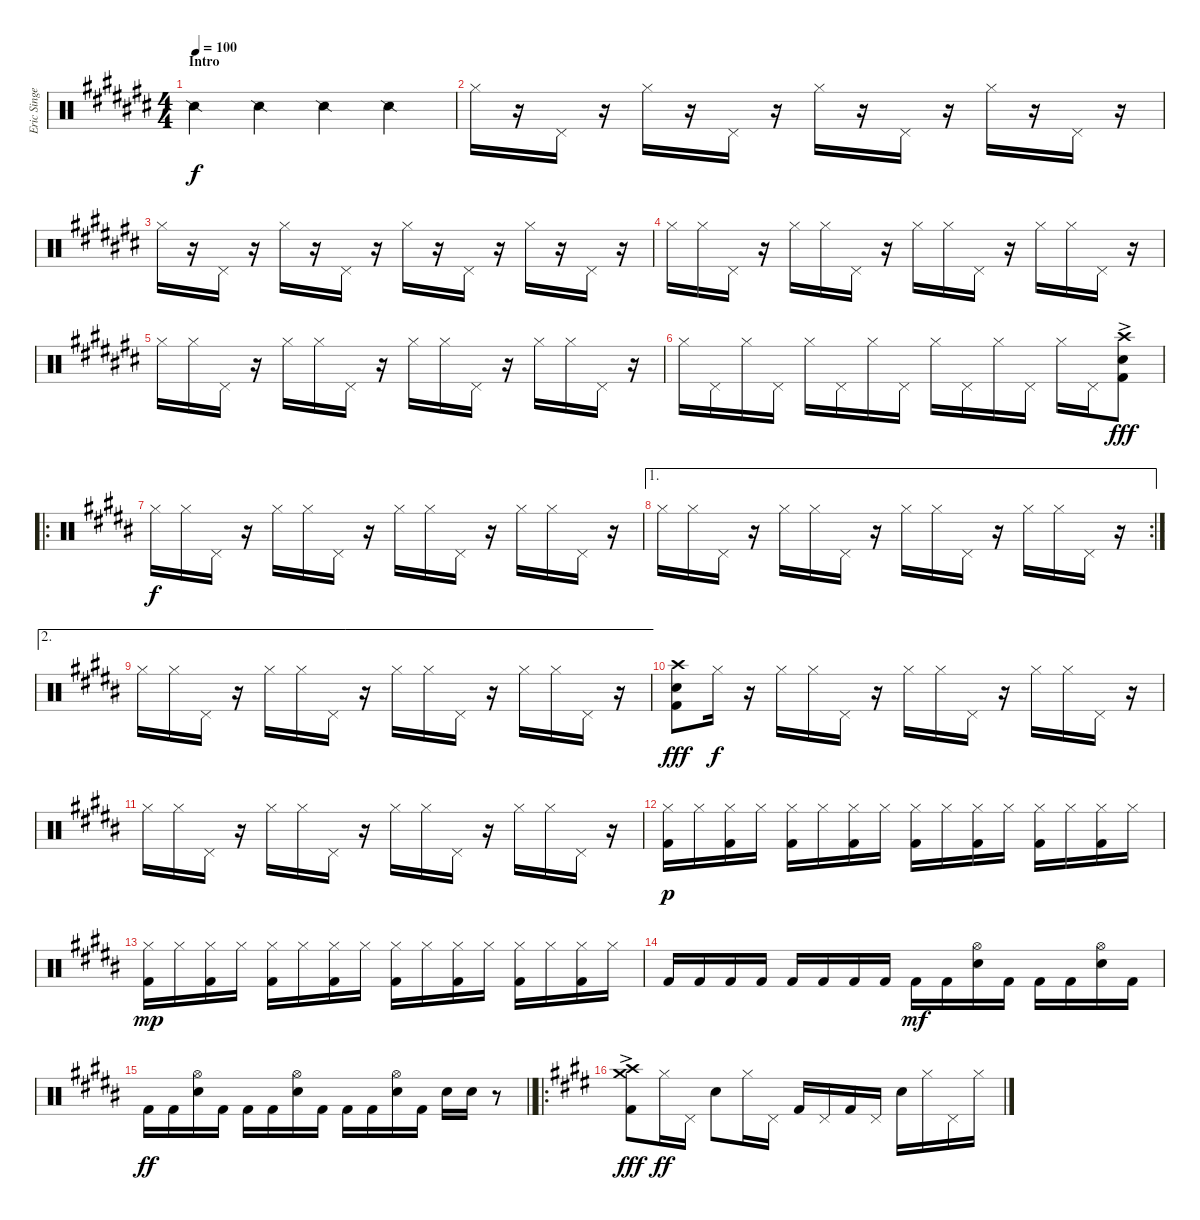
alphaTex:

\track ("Eric Singer" "Eric Singe") {instrument percussion}
\staff {score}
\articulation defaults
\ts (4 4)
\section ("" "Intro")
\tempo 100
\clef neutral
\ks c# "Snare (side stick) 2".4{dy f} "Snare (side stick) 2".4 "Snare (side stick) 2".4 "Snare (side stick) 2".4
|
\ks a#minor "Hi-Hat (closed)".16
r.16 "Pedal Hi-Hat (hit)".16 r.16 "Hi-Hat (closed)".16 r.16 "Pedal Hi-Hat (hit)".16 r.16 "Hi-Hat (closed)".16 r.16 "Pedal Hi-Hat (hit)".16 r.16 "Hi-Hat (closed)".16 r.16 "Pedal Hi-Hat (hit)".16 r.16 |
"Hi-Hat (closed)".16 r.16 "Pedal Hi-Hat (hit)".16 r.16 "Hi-Hat (closed)".16 r.16 "Pedal Hi-Hat (hit)".16 r.16 "Hi-Hat (closed)".16 r.16 "Pedal Hi-Hat (hit)".16 r.16 "Hi-Hat (closed)".16 r.16 "Pedal Hi-Hat (hit)".16 r.16 |
"Hi-Hat (closed)".16 "Hi-Hat (closed)".16 "Pedal Hi-Hat (hit)".16 r.16 "Hi-Hat (closed)".16 "Hi-Hat (closed)".16 "Pedal Hi-Hat (hit)".16 r.16 "Hi-Hat (closed)".16 "Hi-Hat (closed)".16 "Pedal Hi-Hat (hit)".16 r.16 "Hi-Hat (closed)".16 "Hi-Hat (closed)".16 "Pedal Hi-Hat (hit)".16 r.16 |
"Hi-Hat (closed)".16 "Hi-Hat (closed)".16 "Pedal Hi-Hat (hit)".16 r.16 "Hi-Hat (closed)".16 "Hi-Hat (closed)".16 "Pedal Hi-Hat (hit)".16 r.16 "Hi-Hat (closed)".16 "Hi-Hat (closed)".16 "Pedal Hi-Hat (hit)".16 r.16 "Hi-Hat (closed)".16 "Hi-Hat (closed)".16 "Pedal Hi-Hat (hit)".16 r.16 |
\ks c# "Hi-Hat (closed)".16 "Pedal Hi-Hat (hit)".16 "Hi-Hat (closed)".16 "Pedal Hi-Hat (hit)".16 "Hi-Hat (closed)".16 "Pedal Hi-Hat (hit)".16 "Hi-Hat (closed)".16 "Pedal Hi-Hat (hit)".16 "Hi-Hat (closed)".16 "Pedal Hi-Hat (hit)".16 "Hi-Hat (closed)".16 "Pedal Hi-Hat (hit)".16 "Hi-Hat (closed)".16 "Pedal Hi-Hat (hit)".16
("Crash high (hit)"{ac} "Kick (hit) 2"{ac} "Snare (hit) 2"{ac}).8{dy fff} |
\ro
\ks b "Hi-Hat (closed)".16{dy f} "Hi-Hat (closed)".16 "Pedal Hi-Hat (hit)".16
r.16 "Hi-Hat (closed)".16 "Hi-Hat (closed)".16 "Pedal Hi-Hat (hit)".16 r.16 "Hi-Hat (closed)".16 "Hi-Hat (closed)".16 "Pedal Hi-Hat (hit)".16 r.16 "Hi-Hat (closed)".16 "Hi-Hat (closed)".16 "Pedal Hi-Hat (hit)".16 r.16 |
\ae 1
\rc 2 "Hi-Hat (closed)".16 "Hi-Hat (closed)".16 "Pedal Hi-Hat (hit)".16
r.16 "Hi-Hat (closed)".16 "Hi-Hat (closed)".16 "Pedal Hi-Hat (hit)".16 r.16 "Hi-Hat (closed)".16 "Hi-Hat (closed)".16 "Pedal Hi-Hat (hit)".16 r.16 "Hi-Hat (closed)".16 "Hi-Hat (closed)".16 "Pedal Hi-Hat (hit)".16 r.16 |
\ae 2 "Hi-Hat (closed)".16 "Hi-Hat (closed)".16 "Pedal Hi-Hat (hit)".16
r.16 "Hi-Hat (closed)".16 "Hi-Hat (closed)".16 "Pedal Hi-Hat (hit)".16 r.16 "Hi-Hat (closed)".16 "Hi-Hat (closed)".16 "Pedal Hi-Hat (hit)".16 r.16 "Hi-Hat (closed)".16 "Hi-Hat (closed)".16 "Pedal Hi-Hat (hit)".16 r.16 |
("Crash high (hit)" "Kick (hit) 2" "Snare (hit) 2").8{dy fff} "Hi-Hat (closed)".16{dy f} r.16 "Hi-Hat (closed)".16 "Hi-Hat (closed)".16 "Pedal Hi-Hat (hit)".16 r.16 "Hi-Hat (closed)".16 "Hi-Hat (closed)".16 "Pedal Hi-Hat (hit)".16 r.16 "Hi-Hat (closed)".16 "Hi-Hat (closed)".16 "Pedal Hi-Hat (hit)".16 r.16 |
"Hi-Hat (closed)".16 "Hi-Hat (closed)".16 "Pedal Hi-Hat (hit)".16 r.16 "Hi-Hat (closed)".16 "Hi-Hat (closed)".16 "Pedal Hi-Hat (hit)".16 r.16 "Hi-Hat (closed)".16 "Hi-Hat (closed)".16 "Pedal Hi-Hat (hit)".16 r.16 "Hi-Hat (closed)".16 "Hi-Hat (closed)".16 "Pedal Hi-Hat (hit)".16 r.16 |
("Hi-Hat (closed)" "Kick (hit) 2").16{dy p} "Hi-Hat (closed)".16 ("Hi-Hat (closed)" "Kick (hit) 2").16 "Hi-Hat (closed)".16 ("Hi-Hat (closed)" "Kick (hit) 2").16 "Hi-Hat (closed)".16 ("Hi-Hat (closed)" "Kick (hit) 2").16 "Hi-Hat (closed)".16 ("Hi-Hat (closed)" "Kick (hit) 2").16 "Hi-Hat (closed)".16 ("Hi-Hat (closed)" "Kick (hit) 2").16 "Hi-Hat (closed)".16 ("Hi-Hat (closed)" "Kick (hit) 2").16 "Hi-Hat (closed)".16 ("Hi-Hat (closed)" "Kick (hit) 2").16 "Hi-Hat (closed)".16 |
("Hi-Hat (closed)" "Kick (hit) 2").16{dy mp} "Hi-Hat (closed)".16 ("Hi-Hat (closed)" "Kick (hit) 2").16 "Hi-Hat (closed)".16 ("Hi-Hat (closed)" "Kick (hit) 2").16 "Hi-Hat (closed)".16 ("Hi-Hat (closed)" "Kick (hit) 2").16 "Hi-Hat (closed)".16 ("Hi-Hat (closed)" "Kick (hit) 2").16 "Hi-Hat (closed)".16 ("Hi-Hat (closed)" "Kick (hit) 2").16 "Hi-Hat (closed)".16 ("Hi-Hat (closed)" "Kick (hit) 2").16 "Hi-Hat (closed)".16 ("Hi-Hat (closed)" "Kick (hit) 2").16 "Hi-Hat (closed)".16 |
"Kick (hit) 2".16 "Kick (hit) 2".16 "Kick (hit) 2".16 "Kick (hit) 2".16 "Kick (hit) 2".16 "Kick (hit) 2".16 "Kick (hit) 2".16 "Kick (hit) 2".16 "Kick (hit) 2".16{dy mf} "Kick (hit) 2".16 ("Hi-Hat (open)" "Snare (hit) 2").16 "Kick (hit) 2".16 "Kick (hit) 2".16 "Kick (hit) 2".16 ("Hi-Hat (open)" "Snare (hit) 2").16 "Kick (hit) 2".16 |
\barLineRight lightlight "Kick (hit) 2".16{dy ff} "Kick (hit) 2".16
("Hi-Hat (open)" "Snare (hit) 2").16 "Kick (hit) 2".16 "Kick (hit) 2".16 "Kick (hit) 2".16 ("Hi-Hat (open)" "Snare (hit) 2").16 "Kick (hit) 2".16 "Kick (hit) 2".16 "Kick (hit) 2".16 ("Hi-Hat (open)" "Snare (hit) 2").16 "Kick (hit) 2".16 "Snare (hit) 2".16 "Snare (hit) 2".16 r.8 |
\ro
\ks e
("Crash medium (hit)"{ac} "Crash high (hit)"{ac} "Kick (hit) 2"{ac}).8{dy fff} "Hi-Hat (closed)".16{dy ff} "Pedal Hi-Hat (hit)".16 "Snare (hit) 2".8 "Hi-Hat (closed)".16 "Pedal Hi-Hat (hit)".16 "Kick (hit) 2".16 "Pedal Hi-Hat (hit)".16 "Kick (hit) 2".16 "Pedal Hi-Hat (hit)".16 "Snare (hit) 2".16 "Hi-Hat (closed)".16 "Pedal Hi-Hat (hit)".16 "Hi-Hat (closed)".16
